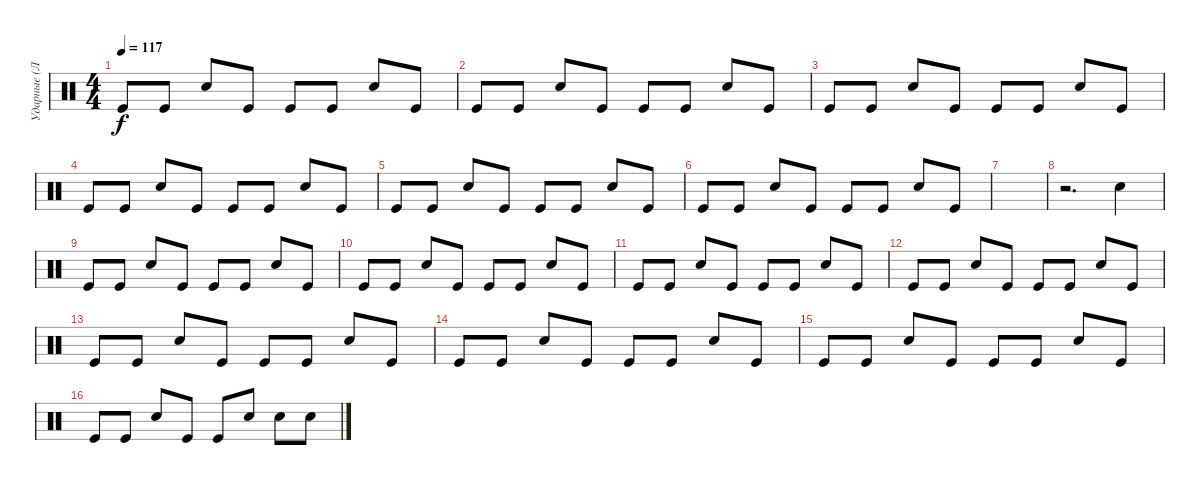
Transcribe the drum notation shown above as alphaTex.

\track ("Ударные (Летов)" "Ударные (Л") {instrument percussion}
\staff {score}
\articulation defaults
\ts (4 4)
\tempo 117
\clef neutral
\ks c "Kick (hit)".8{dy f} "Kick (hit)".8 "Snare (hit) 2".8 "Kick (hit)".8 "Kick (hit)".8 "Kick (hit)".8 "Snare (hit) 2".8 "Kick (hit)".8
|
"Kick (hit)".8 "Kick (hit)".8 "Snare (hit) 2".8 "Kick (hit)".8 "Kick (hit)".8 "Kick (hit)".8 "Snare (hit) 2".8 "Kick (hit)".8 |
"Kick (hit)".8 "Kick (hit)".8 "Snare (hit) 2".8 "Kick (hit)".8 "Kick (hit)".8 "Kick (hit)".8 "Snare (hit) 2".8 "Kick (hit)".8 |
"Kick (hit)".8 "Kick (hit)".8 "Snare (hit) 2".8 "Kick (hit)".8 "Kick (hit)".8 "Kick (hit)".8 "Snare (hit) 2".8 "Kick (hit)".8 |
"Kick (hit)".8 "Kick (hit)".8 "Snare (hit) 2".8 "Kick (hit)".8 "Kick (hit)".8 "Kick (hit)".8 "Snare (hit) 2".8 "Kick (hit)".8 |
"Kick (hit)".8 "Kick (hit)".8 "Snare (hit) 2".8 "Kick (hit)".8 "Kick (hit)".8 "Kick (hit)".8 "Snare (hit) 2".8 "Kick (hit)".8 |
|
r.2{d} "Snare (hit) 2".4 |
"Kick (hit)".8 "Kick (hit)".8 "Snare (hit) 2".8 "Kick (hit)".8 "Kick (hit)".8 "Kick (hit)".8 "Snare (hit) 2".8 "Kick (hit)".8 |
"Kick (hit)".8 "Kick (hit)".8 "Snare (hit) 2".8 "Kick (hit)".8 "Kick (hit)".8 "Kick (hit)".8 "Snare (hit) 2".8 "Kick (hit)".8 |
"Kick (hit)".8 "Kick (hit)".8 "Snare (hit) 2".8 "Kick (hit)".8 "Kick (hit)".8 "Kick (hit)".8 "Snare (hit) 2".8 "Kick (hit)".8 |
"Kick (hit)".8 "Kick (hit)".8 "Snare (hit) 2".8 "Kick (hit)".8 "Kick (hit)".8 "Kick (hit)".8 "Snare (hit) 2".8 "Kick (hit)".8 |
"Kick (hit)".8 "Kick (hit)".8 "Snare (hit) 2".8 "Kick (hit)".8 "Kick (hit)".8 "Kick (hit)".8 "Snare (hit) 2".8 "Kick (hit)".8 |
"Kick (hit)".8 "Kick (hit)".8 "Snare (hit) 2".8 "Kick (hit)".8 "Kick (hit)".8 "Kick (hit)".8 "Snare (hit) 2".8 "Kick (hit)".8 |
"Kick (hit)".8 "Kick (hit)".8 "Snare (hit) 2".8 "Kick (hit)".8 "Kick (hit)".8 "Kick (hit)".8 "Snare (hit) 2".8 "Kick (hit)".8 |
"Kick (hit)".8 "Kick (hit)".8 "Snare (hit) 2".8 "Kick (hit)".8 "Kick (hit)".8 "Snare (hit) 2".8 "Snare (hit) 2".8 "Snare (hit) 2".8
